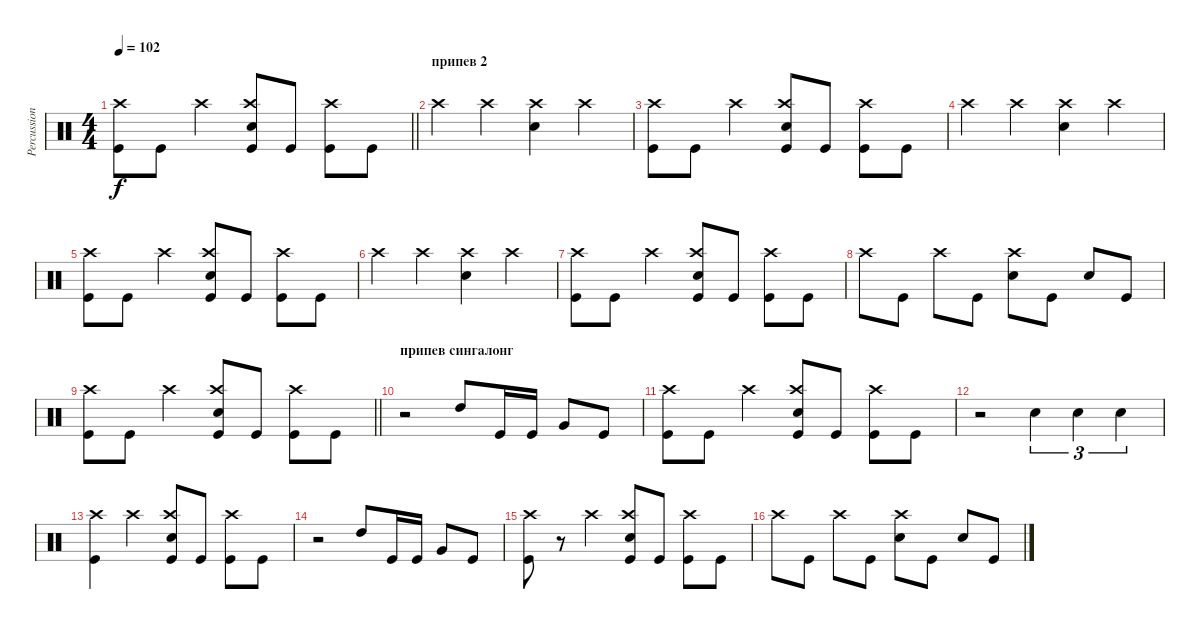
\track ("Percussion" "Percussion") {solo instrument percussion}
\staff {score}
\articulation defaults
\ts (4 4)
\tempo 102
\clef neutral
\barLineRight lightlight
\ks c
("Kick (hit)" "Crash high (hit)").8{dy f} "Kick (hit)".8 "Crash high (hit)".4 ("Kick (hit)" "Crash high (hit)" "Snare (hit) 2").8 "Kick (hit)".8 ("Kick (hit)" "Crash high (hit)").8 "Kick (hit)".8 |
\section ("" "припев 2")
"Crash high (hit)".4 "Crash high (hit)".4 ("Crash high (hit)" "Snare (hit) 2").4 "Crash high (hit)".4 |
("Kick (hit)" "Crash high (hit)").8 "Kick (hit)".8 "Crash high (hit)".4 ("Kick (hit)" "Crash high (hit)" "Snare (hit) 2").8 "Kick (hit)".8 ("Kick (hit)" "Crash high (hit)").8 "Kick (hit)".8 |
"Crash high (hit)".4 "Crash high (hit)".4 ("Crash high (hit)" "Snare (hit) 2").4 "Crash high (hit)".4 |
("Kick (hit)" "Crash high (hit)").8 "Kick (hit)".8 "Crash high (hit)".4 ("Kick (hit)" "Crash high (hit)" "Snare (hit) 2").8 "Kick (hit)".8 ("Kick (hit)" "Crash high (hit)").8 "Kick (hit)".8 |
"Crash high (hit)".4 "Crash high (hit)".4 ("Crash high (hit)" "Snare (hit) 2").4 "Crash high (hit)".4 |
("Kick (hit)" "Crash high (hit)").8 "Kick (hit)".8 "Crash high (hit)".4 ("Kick (hit)" "Crash high (hit)" "Snare (hit) 2").8 "Kick (hit)".8 ("Kick (hit)" "Crash high (hit)").8 "Kick (hit)".8 |
"Crash high (hit)".8 "Kick (hit)".8 "Crash high (hit)".8 "Kick (hit)".8 ("Crash high (hit)" "Snare (hit) 2").8 "Kick (hit)".8 "Snare (hit) 2".8 "Kick (hit)".8 |
\barLineRight lightlight
("Kick (hit)" "Crash high (hit)").8 "Kick (hit)".8 "Crash high (hit)".4 ("Kick (hit)" "Crash high (hit)" "Snare (hit) 2").8 "Kick (hit)".8 ("Kick (hit)" "Crash high (hit)").8 "Kick (hit)".8 |
\section ("" "припев сингалонг")
r.2 "High Tom (hit)".8 "Kick (hit)".16 "Kick (hit)".16 "Very Low Tom (hit)".8 "Kick (hit)".8 |
("Kick (hit)" "Crash high (hit)").8 "Kick (hit)".8 "Crash high (hit)".4 ("Kick (hit)" "Crash high (hit)" "Snare (hit) 2").8 "Kick (hit)".8 ("Kick (hit)" "Crash high (hit)").8 "Kick (hit)".8 |
r.2 "Snare (hit) 2".4{tu (3 2)} "Snare (hit) 2".4{tu (3 2)} "Snare (hit) 2".4{tu (3 2)} |
("Kick (hit)" "Crash high (hit)").4 "Crash high (hit)".4 ("Kick (hit)" "Crash high (hit)" "Snare (hit) 2").8 "Kick (hit)".8 ("Kick (hit)" "Crash high (hit)").8 "Kick (hit)".8 |
r.2 "High Tom (hit)".8 "Kick (hit)".16 "Kick (hit)".16 "Very Low Tom (hit)".8 "Kick (hit)".8 |
("Kick (hit)" "Crash high (hit)").8 r.8 "Crash high (hit)".4 ("Kick (hit)" "Crash high (hit)" "Snare (hit) 2").8 "Kick (hit)".8 ("Kick (hit)" "Crash high (hit)").8 "Kick (hit)".8 |
"Crash high (hit)".8 "Kick (hit)".8 "Crash high (hit)".8 "Kick (hit)".8 ("Crash high (hit)" "Snare (hit) 2").8 "Kick (hit)".8 "Snare (hit) 2".8 "Kick (hit)".8
